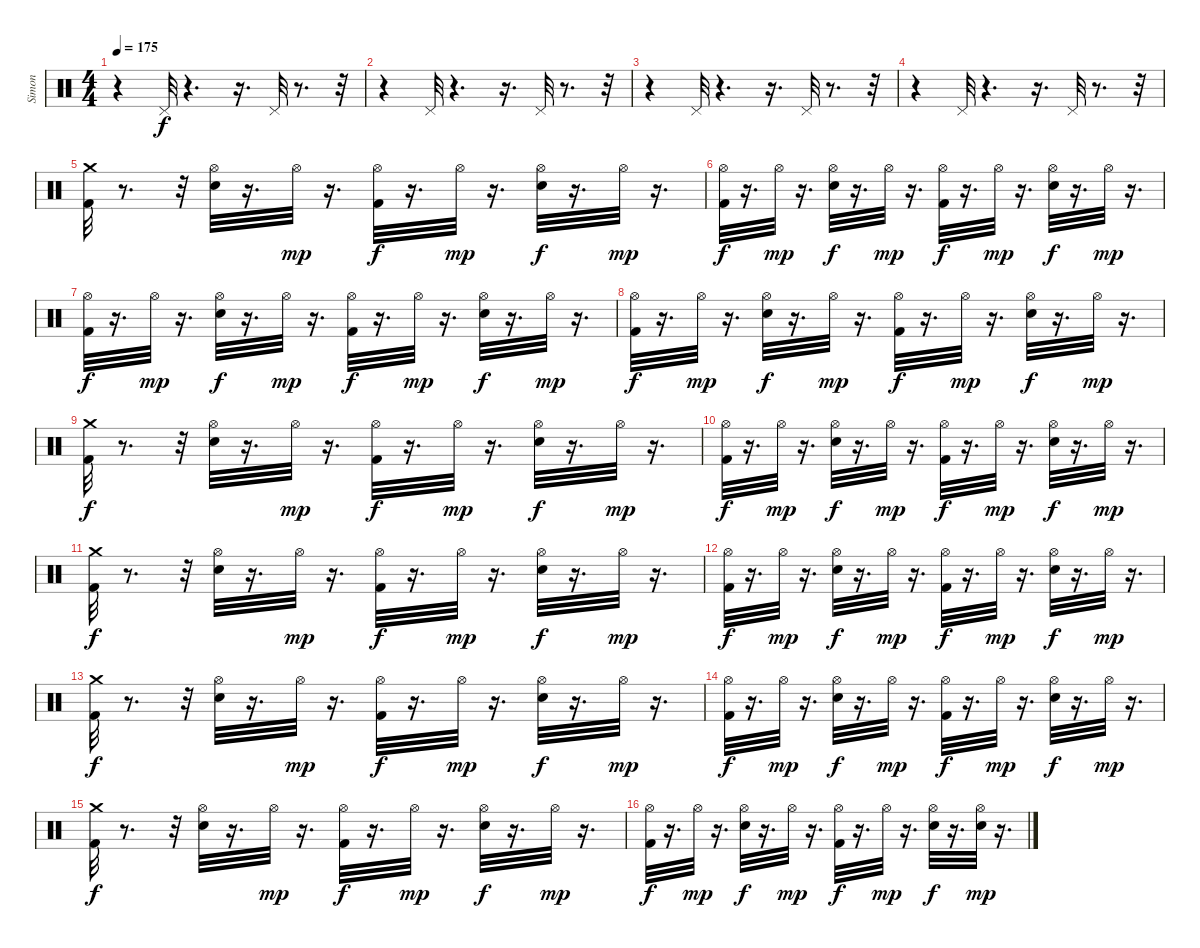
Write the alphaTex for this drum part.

\track ("Simon" "Simon") {instrument percussion}
\staff {score}
\articulation defaults
\ts (4 4)
\tempo 175
\clef neutral
\ks c
r.4{dy f} "Pedal Hi-Hat (hit)".32 r.4{d} r.16{d} "Pedal Hi-Hat (hit)".32 r.8{d} r.32 |
r.4 "Pedal Hi-Hat (hit)".32 r.4{d} r.16{d} "Pedal Hi-Hat (hit)".32 r.8{d} r.32 |
r.4 "Pedal Hi-Hat (hit)".32 r.4{d} r.16{d} "Pedal Hi-Hat (hit)".32 r.8{d} r.32 |
r.4 "Pedal Hi-Hat (hit)".32 r.4{d} r.16{d} "Pedal Hi-Hat (hit)".32 r.8{d} r.32 |
("Crash medium (hit)" "Kick (hit) 2").32 r.8{d} r.32 ("Hi-Hat (open)" "Electric Snare (hit)").32 r.16{d} "Hi-Hat (open)".32{dy mp} r.16{d} ("Hi-Hat (open)" "Kick (hit) 2").32{dy f} r.16{d} "Hi-Hat (open)".32{dy mp} r.16{d} ("Hi-Hat (open)" "Electric Snare (hit)").32{dy f} r.16{d} "Hi-Hat (open)".32{dy mp} r.16{d} |
("Hi-Hat (open)" "Kick (hit) 2").32{dy f} r.16{d} "Hi-Hat (open)".32{dy mp} r.16{d} ("Hi-Hat (open)" "Electric Snare (hit)").32{dy f} r.16{d} "Hi-Hat (open)".32{dy mp} r.16{d} ("Hi-Hat (open)" "Kick (hit) 2").32{dy f} r.16{d} "Hi-Hat (open)".32{dy mp} r.16{d} ("Hi-Hat (open)" "Electric Snare (hit)").32{dy f} r.16{d} "Hi-Hat (open)".32{dy mp} r.16{d} |
("Hi-Hat (open)" "Kick (hit) 2").32{dy f} r.16{d} "Hi-Hat (open)".32{dy mp} r.16{d} ("Hi-Hat (open)" "Electric Snare (hit)").32{dy f} r.16{d} "Hi-Hat (open)".32{dy mp} r.16{d} ("Hi-Hat (open)" "Kick (hit) 2").32{dy f} r.16{d} "Hi-Hat (open)".32{dy mp} r.16{d} ("Hi-Hat (open)" "Electric Snare (hit)").32{dy f} r.16{d} "Hi-Hat (open)".32{dy mp} r.16{d} |
("Hi-Hat (open)" "Kick (hit) 2").32{dy f} r.16{d} "Hi-Hat (open)".32{dy mp} r.16{d} ("Hi-Hat (open)" "Electric Snare (hit)").32{dy f} r.16{d} "Hi-Hat (open)".32{dy mp} r.16{d} ("Hi-Hat (open)" "Kick (hit) 2").32{dy f} r.16{d} "Hi-Hat (open)".32{dy mp} r.16{d} ("Hi-Hat (open)" "Electric Snare (hit)").32{dy f} r.16{d} "Hi-Hat (open)".32{dy mp} r.16{d} |
("Crash medium (hit)" "Kick (hit) 2").32{dy f} r.8{d} r.32 ("Hi-Hat (open)" "Electric Snare (hit)").32 r.16{d} "Hi-Hat (open)".32{dy mp} r.16{d} ("Hi-Hat (open)" "Kick (hit) 2").32{dy f} r.16{d} "Hi-Hat (open)".32{dy mp} r.16{d} ("Hi-Hat (open)" "Electric Snare (hit)").32{dy f} r.16{d} "Hi-Hat (open)".32{dy mp} r.16{d} |
("Hi-Hat (open)" "Kick (hit) 2").32{dy f} r.16{d} "Hi-Hat (open)".32{dy mp} r.16{d} ("Hi-Hat (open)" "Electric Snare (hit)").32{dy f} r.16{d} "Hi-Hat (open)".32{dy mp} r.16{d} ("Hi-Hat (open)" "Kick (hit) 2").32{dy f} r.16{d} "Hi-Hat (open)".32{dy mp} r.16{d} ("Hi-Hat (open)" "Electric Snare (hit)").32{dy f} r.16{d} "Hi-Hat (open)".32{dy mp} r.16{d} |
("Crash medium (hit)" "Kick (hit) 2").32{dy f} r.8{d} r.32 ("Hi-Hat (open)" "Electric Snare (hit)").32 r.16{d} "Hi-Hat (open)".32{dy mp} r.16{d} ("Hi-Hat (open)" "Kick (hit) 2").32{dy f} r.16{d} "Hi-Hat (open)".32{dy mp} r.16{d} ("Hi-Hat (open)" "Electric Snare (hit)").32{dy f} r.16{d} "Hi-Hat (open)".32{dy mp} r.16{d} |
("Hi-Hat (open)" "Kick (hit) 2").32{dy f} r.16{d} "Hi-Hat (open)".32{dy mp} r.16{d} ("Hi-Hat (open)" "Electric Snare (hit)").32{dy f} r.16{d} "Hi-Hat (open)".32{dy mp} r.16{d} ("Hi-Hat (open)" "Kick (hit) 2").32{dy f} r.16{d} "Hi-Hat (open)".32{dy mp} r.16{d} ("Hi-Hat (open)" "Electric Snare (hit)").32{dy f} r.16{d} "Hi-Hat (open)".32{dy mp} r.16{d} |
("Crash medium (hit)" "Kick (hit) 2").32{dy f} r.8{d} r.32 ("Hi-Hat (open)" "Electric Snare (hit)").32 r.16{d} "Hi-Hat (open)".32{dy mp} r.16{d} ("Hi-Hat (open)" "Kick (hit) 2").32{dy f} r.16{d} "Hi-Hat (open)".32{dy mp} r.16{d} ("Hi-Hat (open)" "Electric Snare (hit)").32{dy f} r.16{d} "Hi-Hat (open)".32{dy mp} r.16{d} |
("Hi-Hat (open)" "Kick (hit) 2").32{dy f} r.16{d} "Hi-Hat (open)".32{dy mp} r.16{d} ("Hi-Hat (open)" "Electric Snare (hit)").32{dy f} r.16{d} "Hi-Hat (open)".32{dy mp} r.16{d} ("Hi-Hat (open)" "Kick (hit) 2").32{dy f} r.16{d} "Hi-Hat (open)".32{dy mp} r.16{d} ("Hi-Hat (open)" "Electric Snare (hit)").32{dy f} r.16{d} "Hi-Hat (open)".32{dy mp} r.16{d} |
("Crash medium (hit)" "Kick (hit) 2").32{dy f} r.8{d} r.32 ("Hi-Hat (open)" "Electric Snare (hit)").32 r.16{d} "Hi-Hat (open)".32{dy mp} r.16{d} ("Hi-Hat (open)" "Kick (hit) 2").32{dy f} r.16{d} "Hi-Hat (open)".32{dy mp} r.16{d} ("Hi-Hat (open)" "Electric Snare (hit)").32{dy f} r.16{d} "Hi-Hat (open)".32{dy mp} r.16{d} |
("Hi-Hat (open)" "Kick (hit) 2").32{dy f} r.16{d} "Hi-Hat (open)".32{dy mp} r.16{d} ("Hi-Hat (open)" "Electric Snare (hit)").32{dy f} r.16{d} "Hi-Hat (open)".32{dy mp} r.16{d} ("Hi-Hat (open)" "Kick (hit) 2").32{dy f} r.16{d} "Hi-Hat (open)".32{dy mp} r.16{d} ("Hi-Hat (open)" "Electric Snare (hit)").32{dy f} r.16{d} ("Electric Snare (hit)" "Hi-Hat (open)").32{dy mp} r.16{d}
